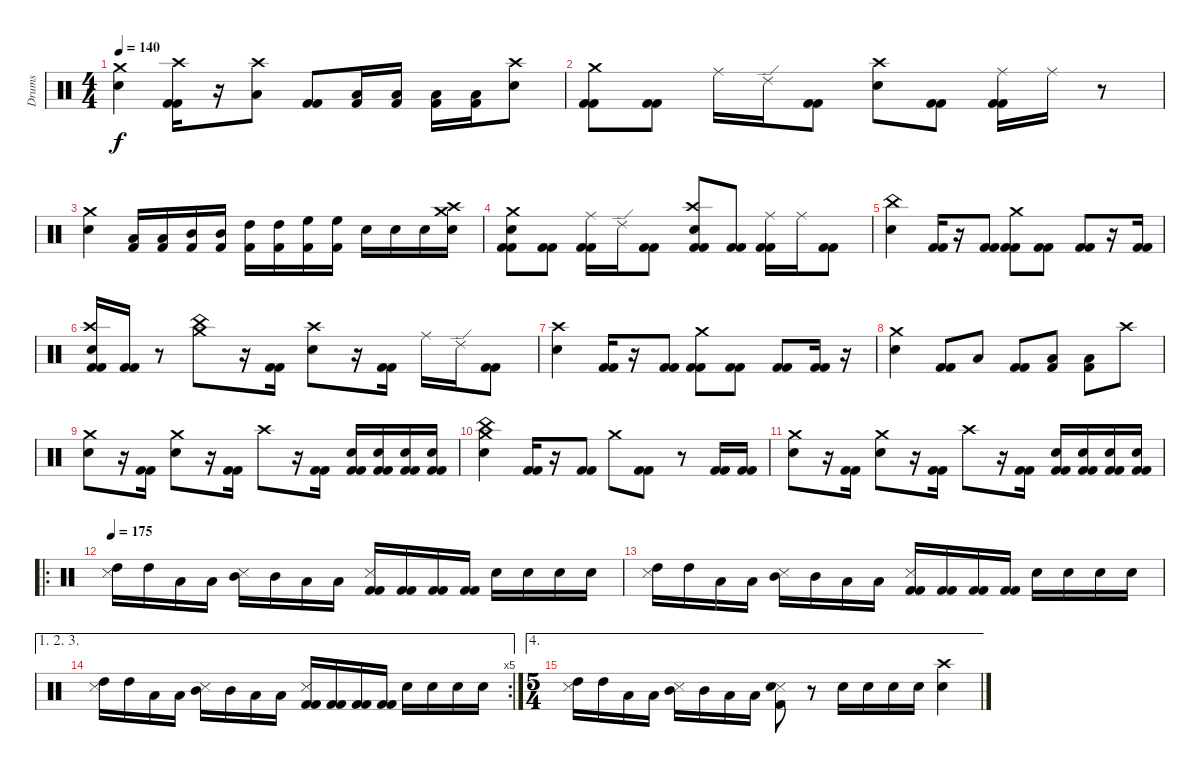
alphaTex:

\track ("Drums " "Drums ") {instrument percussion}
\staff {score}
\articulation defaults
\ts (4 4)
\tempo 140
\clef neutral
\ks c
("Crash medium (hit)" "Electric Snare (hit)").4{dy f} ("Crash high (hit)" "Kick (hit) 2" "Kick (hit) 2").16 r.16 ("Crash high (hit)" "Low Floor Tom (hit)").8 ("Kick (hit) 2" "Kick (hit) 2").8 ("Low Tom (hit)" "Kick (hit) 2").16 ("Low Tom (hit)" "Kick (hit) 2").16 ("Low Tom (hit)" "Kick (hit) 2").16 ("Low Tom (hit)" "Kick (hit) 2").16 ("Crash high (hit)" "Electric Snare (hit)").8 |
("Crash medium (hit)" "Kick (hit) 2" "Kick (hit) 2").8 ("Kick (hit) 2" "Kick (hit) 2").8 "Ride (middle)".16 "Ride (edge) 2".16 ("Kick (hit) 2" "Kick (hit) 2").8 ("Crash high (hit)" "Electric Snare (hit)").8 ("Kick (hit) 2" "Kick (hit) 2").8 ("Ride (middle)" "Kick (hit) 2" "Kick (hit) 2").16 "Ride (middle)".16 r.8 |
("Crash medium (hit)" "Electric Snare (hit)").4 ("Low Tom (hit)" "Kick (hit) 2").16 ("Low Tom (hit)" "Kick (hit) 2").16 ("Mid Tom (hit)" "Kick (hit) 2").16 ("Mid Tom (hit)" "Kick (hit) 2").16 ("High Tom (hit)" "Kick (hit) 2").16 ("High Tom (hit)" "Kick (hit) 2").16 ("High Floor Tom (hit)" "Kick (hit) 2").16 ("High Floor Tom (hit)" "Kick (hit) 2").16 "Electric Snare (hit)".16 "Electric Snare (hit)".16 "Electric Snare (hit)".16 ("Crash high (hit)" "Crash medium (hit)" "Electric Snare (hit)").16{bd 480} |
("Crash medium (hit)" "Electric Snare (hit)" "Kick (hit) 2" "Kick (hit) 2").8 ("Kick (hit) 2" "Kick (hit) 2").8 ("Ride (middle)" "Kick (hit) 2" "Kick (hit) 2").16 "Ride (edge) 2".16 ("Kick (hit) 2" "Kick (hit) 2").8 ("Crash high (hit)" "Electric Snare (hit)" "Kick (hit) 2" "Kick (hit) 2").8 ("Kick (hit) 2" "Kick (hit) 2").8 ("Ride (middle)" "Kick (hit) 2" "Kick (hit) 2").16 "Ride (middle)".16 ("Kick (hit) 2" "Kick (hit) 2").8 |
("China (hit)" "Electric Snare (hit)").4 ("Kick (hit) 2" "Kick (hit) 2").16 r.16 ("Kick (hit) 2" "Kick (hit) 2").8 ("Crash medium (hit)" "Kick (hit) 2" "Kick (hit) 2").8 ("Kick (hit) 2" "Kick (hit) 2").8 ("Kick (hit) 2" "Kick (hit) 2").8 r.16 ("Kick (hit) 2" "Kick (hit) 2").16 |
("Crash high (hit)" "Electric Snare (hit)" "Kick (hit) 2" "Kick (hit) 2").16 ("Kick (hit) 2" "Kick (hit) 2").16 r.8 ("China (hit)" "Crash medium (hit)").8{bu 480} r.16 ("Kick (hit) 2" "Kick (hit) 2").16 ("Crash high (hit)" "Electric Snare (hit)").8 r.16 ("Kick (hit) 2" "Kick (hit) 2").16 "Ride (middle)".16 "Ride (edge) 2".16 ("Kick (hit) 2" "Kick (hit) 2").8 |
("Crash high (hit)" "Electric Snare (hit)").4 ("Kick (hit) 2" "Kick (hit) 2").16 r.16 ("Kick (hit) 2" "Kick (hit) 2").8 ("Crash medium (hit)" "Kick (hit) 2" "Kick (hit) 2").8 ("Kick (hit) 2" "Kick (hit) 2").8 ("Kick (hit) 2" "Kick (hit) 2").8 ("Kick (hit) 2" "Kick (hit) 2").16 r.16 |
("Crash medium (hit)" "Electric Snare (hit)").4 ("Kick (hit) 2" "Kick (hit) 2").8 "Low Floor Tom (hit)".8 ("Kick (hit) 2" "Kick (hit) 2").8 ("Low Tom (hit)" "Kick (hit) 2").8 ("Low Tom (hit)" "Kick (hit) 2").8 "Crash high (hit)".8 |
("Crash medium (hit)" "Electric Snare (hit)").8 r.16 ("Kick (hit) 2" "Kick (hit) 2").16 ("Crash medium (hit)" "Electric Snare (hit)").8 r.16 ("Kick (hit) 2" "Kick (hit) 2").16 "Crash high (hit)".8 r.16 ("Kick (hit) 2" "Kick (hit) 2").16 ("Electric Snare (hit)" "Kick (hit) 2" "Kick (hit) 2").16 ("Electric Snare (hit)" "Kick (hit) 2" "Kick (hit) 2").16 ("Electric Snare (hit)" "Kick (hit) 2" "Kick (hit) 2").16 ("Electric Snare (hit)" "Kick (hit) 2" "Kick (hit) 2").16 |
("China (hit)" "Crash medium (hit)" "Electric Snare (hit)").4 ("Kick (hit) 2" "Kick (hit) 2").16 r.16 ("Kick (hit) 2" "Kick (hit) 2").8 "Crash medium (hit)".8 ("Kick (hit) 2" "Kick (hit) 2").8 r.8 ("Kick (hit) 2" "Kick (hit) 2").16 ("Kick (hit) 2" "Kick (hit) 2").16 |
("Crash medium (hit)" "Electric Snare (hit)").8 r.16 ("Kick (hit) 2" "Kick (hit) 2").16 ("Crash medium (hit)" "Electric Snare (hit)").8 r.16 ("Kick (hit) 2" "Kick (hit) 2").16 "Crash high (hit)".8 r.16 ("Kick (hit) 2" "Kick (hit) 2").16 ("Electric Snare (hit)" "Kick (hit) 2" "Kick (hit) 2").16 ("Electric Snare (hit)" "Kick (hit) 2" "Kick (hit) 2").16 ("Electric Snare (hit)" "Kick (hit) 2" "Kick (hit) 2").16 ("Electric Snare (hit)" "Kick (hit) 2" "Kick (hit) 2").16 |
\ro
\tempo 175
("Metronome (hit)" "High Tom (hit)").16 "High Tom (hit)".16 "Low Tom (hit)".16 "Low Tom (hit)".16 ("Metronome (hit)" "Mid Tom (hit)").16 "Mid Tom (hit)".16 "Low Tom (hit)".16 "Low Tom (hit)".16 ("Metronome (hit)" "Kick (hit) 2" "Kick (hit) 2").16 ("Kick (hit) 2" "Kick (hit) 2").16 ("Kick (hit) 2" "Kick (hit) 2").16 ("Kick (hit) 2" "Kick (hit) 2").16 "Electric Snare (hit)".16 "Electric Snare (hit)".16 "Electric Snare (hit)".16 "Electric Snare (hit)".16 |
("Metronome (hit)" "High Tom (hit)").16 "High Tom (hit)".16 "Low Tom (hit)".16 "Low Tom (hit)".16 ("Metronome (hit)" "Mid Tom (hit)").16 "Mid Tom (hit)".16 "Low Tom (hit)".16 "Low Tom (hit)".16 ("Metronome (hit)" "Kick (hit) 2" "Kick (hit) 2").16 ("Kick (hit) 2" "Kick (hit) 2").16 ("Kick (hit) 2" "Kick (hit) 2").16 ("Kick (hit) 2" "Kick (hit) 2").16 "Electric Snare (hit)".16 "Electric Snare (hit)".16 "Electric Snare (hit)".16 "Electric Snare (hit)".16 |
\ae (1 2 3)
\rc 5
("Metronome (hit)" "High Tom (hit)").16 "High Tom (hit)".16 "Low Tom (hit)".16 "Low Tom (hit)".16 ("Metronome (hit)" "Mid Tom (hit)").16 "Mid Tom (hit)".16 "Low Tom (hit)".16 "Low Tom (hit)".16 ("Metronome (hit)" "Kick (hit) 2" "Kick (hit) 2").16 ("Kick (hit) 2" "Kick (hit) 2").16 ("Kick (hit) 2" "Kick (hit) 2").16 ("Kick (hit) 2" "Kick (hit) 2").16 "Electric Snare (hit)".16 "Electric Snare (hit)".16 "Electric Snare (hit)".16 "Electric Snare (hit)".16 |
\ae 4
\ts (5 4)
("Metronome (hit)" "High Tom (hit)").16 "High Tom (hit)".16 "Low Tom (hit)".16 "Low Tom (hit)".16 ("Metronome (hit)" "Mid Tom (hit)").16 "Mid Tom (hit)".16 "Low Tom (hit)".16 "Low Tom (hit)".16 ("Metronome (hit)" "Electric Snare (hit)" "Kick (hit) 2").8 r.8 "Electric Snare (hit)".16 "Electric Snare (hit)".16 "Electric Snare (hit)".16 "Electric Snare (hit)".16 ("Crash high (hit)" "Electric Snare (hit)").4
